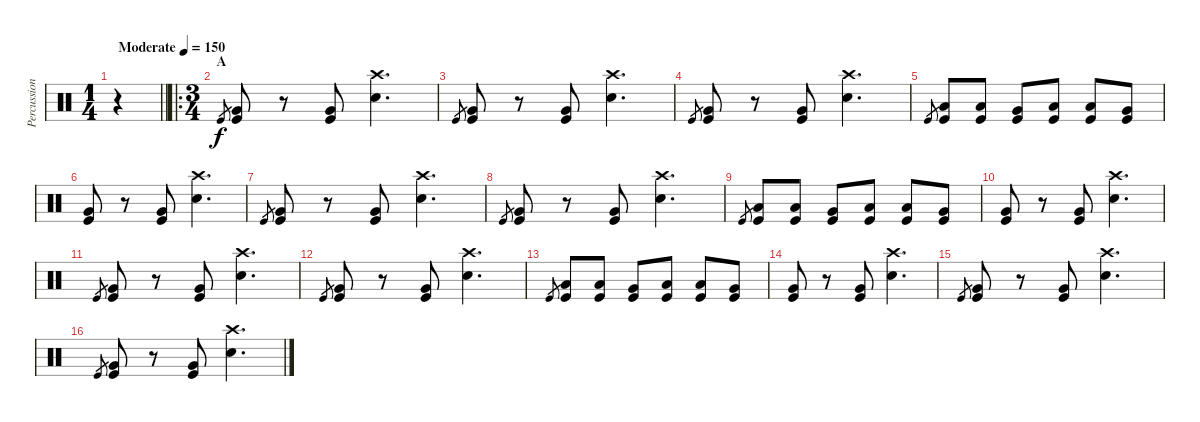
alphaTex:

\track ("Percussion" "Percussion") {instrument percussion}
\staff {score}
\articulation defaults
\ts (1 4)
\tempo (150 "Moderate")
\clef neutral
\barLineRight lightlight
\ks c
r.4{dy f} |
\ro
\ts (3 4)
\section ("" "A")
"Kick (hit)".8{gr} ("Very Low Tom (hit)" "Kick (hit)").8 r.8 ("Very Low Tom (hit)" "Kick (hit)").8 ("Crash high (hit)" "Snare (hit) 2").4{d} |
"Kick (hit)".8{gr} ("Very Low Tom (hit)" "Kick (hit)").8 r.8 ("Very Low Tom (hit)" "Kick (hit)").8 ("Crash high (hit)" "Snare (hit) 2").4{d} |
"Kick (hit)".8{gr} ("Very Low Tom (hit)" "Kick (hit)").8 r.8 ("Very Low Tom (hit)" "Kick (hit)").8 ("Crash high (hit)" "Snare (hit) 2").4{d} |
"Kick (hit)".8{gr} ("Low Tom (hit)" "Kick (hit)").8 ("Low Tom (hit)" "Kick (hit)").8 ("Very Low Tom (hit)" "Kick (hit)").8 ("Low Tom (hit)" "Kick (hit)").8 ("Low Tom (hit)" "Kick (hit)").8 ("Very Low Tom (hit)" "Kick (hit)").8 |
("Very Low Tom (hit)" "Kick (hit)").8 r.8 ("Very Low Tom (hit)" "Kick (hit)").8 ("Crash high (hit)" "Snare (hit) 2").4{d} |
"Kick (hit)".8{gr} ("Very Low Tom (hit)" "Kick (hit)").8 r.8 ("Very Low Tom (hit)" "Kick (hit)").8 ("Crash high (hit)" "Snare (hit) 2").4{d} |
"Kick (hit)".8{gr} ("Very Low Tom (hit)" "Kick (hit)").8 r.8 ("Very Low Tom (hit)" "Kick (hit)").8 ("Crash high (hit)" "Snare (hit) 2").4{d} |
"Kick (hit)".8{gr} ("Low Tom (hit)" "Kick (hit)").8 ("Low Tom (hit)" "Kick (hit)").8 ("Very Low Tom (hit)" "Kick (hit)").8 ("Low Tom (hit)" "Kick (hit)").8 ("Low Tom (hit)" "Kick (hit)").8 ("Very Low Tom (hit)" "Kick (hit)").8 |
("Very Low Tom (hit)" "Kick (hit)").8 r.8 ("Very Low Tom (hit)" "Kick (hit)").8 ("Crash high (hit)" "Snare (hit) 2").4{d} |
"Kick (hit)".8{gr} ("Very Low Tom (hit)" "Kick (hit)").8 r.8 ("Very Low Tom (hit)" "Kick (hit)").8 ("Crash high (hit)" "Snare (hit) 2").4{d} |
"Kick (hit)".8{gr} ("Very Low Tom (hit)" "Kick (hit)").8 r.8 ("Very Low Tom (hit)" "Kick (hit)").8 ("Crash high (hit)" "Snare (hit) 2").4{d} |
"Kick (hit)".8{gr} ("Low Tom (hit)" "Kick (hit)").8 ("Low Tom (hit)" "Kick (hit)").8 ("Very Low Tom (hit)" "Kick (hit)").8 ("Low Tom (hit)" "Kick (hit)").8 ("Low Tom (hit)" "Kick (hit)").8 ("Very Low Tom (hit)" "Kick (hit)").8 |
("Very Low Tom (hit)" "Kick (hit)").8 r.8 ("Very Low Tom (hit)" "Kick (hit)").8 ("Crash high (hit)" "Snare (hit) 2").4{d} |
"Kick (hit)".8{gr} ("Very Low Tom (hit)" "Kick (hit)").8 r.8 ("Very Low Tom (hit)" "Kick (hit)").8 ("Crash high (hit)" "Snare (hit) 2").4{d} |
"Kick (hit)".8{gr} ("Very Low Tom (hit)" "Kick (hit)").8 r.8 ("Very Low Tom (hit)" "Kick (hit)").8 ("Crash high (hit)" "Snare (hit) 2").4{d}
